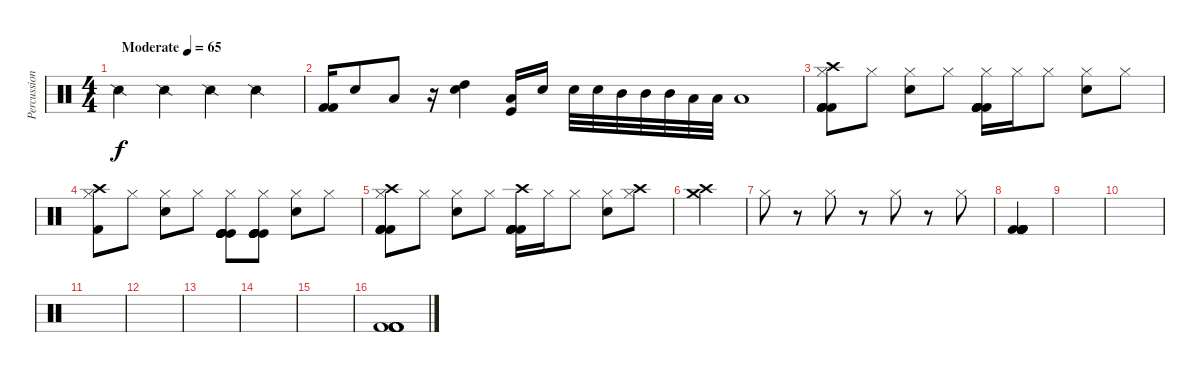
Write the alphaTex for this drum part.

\track ("Percussion" "Percussion") {instrument percussion}
\staff {score}
\articulation defaults
\ts (4 4)
\tempo (65 "Moderate")
\clef neutral
\ks c "Snare (side stick) 2".4{dy f} "Snare (side stick) 2".4 "Snare (side stick) 2".4 "Snare (side stick) 2".4
|
("Kick (hit) 2" "Kick (hit) 2").16 "Snare (hit) 2".8 "Low Tom (hit)".8 r.16 ("Snare (hit) 2" "High Tom (hit)").4 ("Kick (hit)" "Low Tom (hit)").16 "Snare (hit) 2".16 "Snare (hit) 2".32 "Snare (hit) 2".32 "Mid Tom (hit)".32 "Mid Tom (hit)".32 "Mid Tom (hit)".32 "Low Tom (hit)".32 "Low Tom (hit)".32 "Low Tom (hit)".1 |
("Kick (hit) 2" "Hi-Hat (closed)" "Crash high (hit)" "Kick (hit) 2" "Kick (hit) 2" "Kick (hit) 2").8 "Hi-Hat (closed)".8 ("Hi-Hat (closed)" "Snare (hit) 2").8 "Hi-Hat (closed)".8 ("Hi-Hat (closed)" "Kick (hit) 2" "Kick (hit) 2" "Kick (hit) 2" "Kick (hit) 2" "Kick (hit) 2").16 "Hi-Hat (closed)".16 "Hi-Hat (closed)".8 ("Hi-Hat (closed)" "Snare (hit) 2").8 "Hi-Hat (closed)".8 |
("Hi-Hat (closed)" "Kick (hit) 2" "Crash high (hit)").8 "Hi-Hat (closed)".8 ("Hi-Hat (closed)" "Snare (hit) 2").8 "Hi-Hat (closed)".8 ("Hi-Hat (closed)" "Kick (hit)" "Kick (hit)" "Kick (hit)" "Kick (hit)" "Kick (hit)").8 ("Hi-Hat (closed)" "Kick (hit)" "Kick (hit)" "Kick (hit)" "Kick (hit)" "Kick (hit)").8 ("Hi-Hat (closed)" "Snare (hit) 2").8 "Hi-Hat (closed)".8 |
("Kick (hit) 2" "Hi-Hat (closed)" "Crash high (hit)" "Kick (hit) 2" "Kick (hit) 2" "Kick (hit) 2").8 "Hi-Hat (closed)".8 ("Hi-Hat (closed)" "Snare (hit) 2").8 "Hi-Hat (closed)".8 ("Crash high (hit)" "Kick (hit) 2" "Kick (hit) 2" "Kick (hit) 2" "Kick (hit) 2" "Kick (hit) 2").16 "Hi-Hat (closed)".16 "Hi-Hat (closed)".8 ("Hi-Hat (closed)" "Snare (hit) 2").8 ("Hi-Hat (closed)" "Crash high (hit)").8 |
("Crash high (hit)" "Crash medium (hit)").4 |
"Hi-Hat (closed)".8 r.8 "Hi-Hat (closed)".8 r.8 "Hi-Hat (closed)".8 r.8 "Hi-Hat (closed)".8 |
("Kick (hit) 2" "Kick (hit) 2" "Kick (hit) 2" "Kick (hit) 2" "Kick (hit) 2" "Kick (hit) 2").4 |
|
|
|
|
|
|
|
("Kick (hit) 2" "Kick (hit) 2" "Kick (hit) 2" "Kick (hit) 2" "Kick (hit) 2").1
